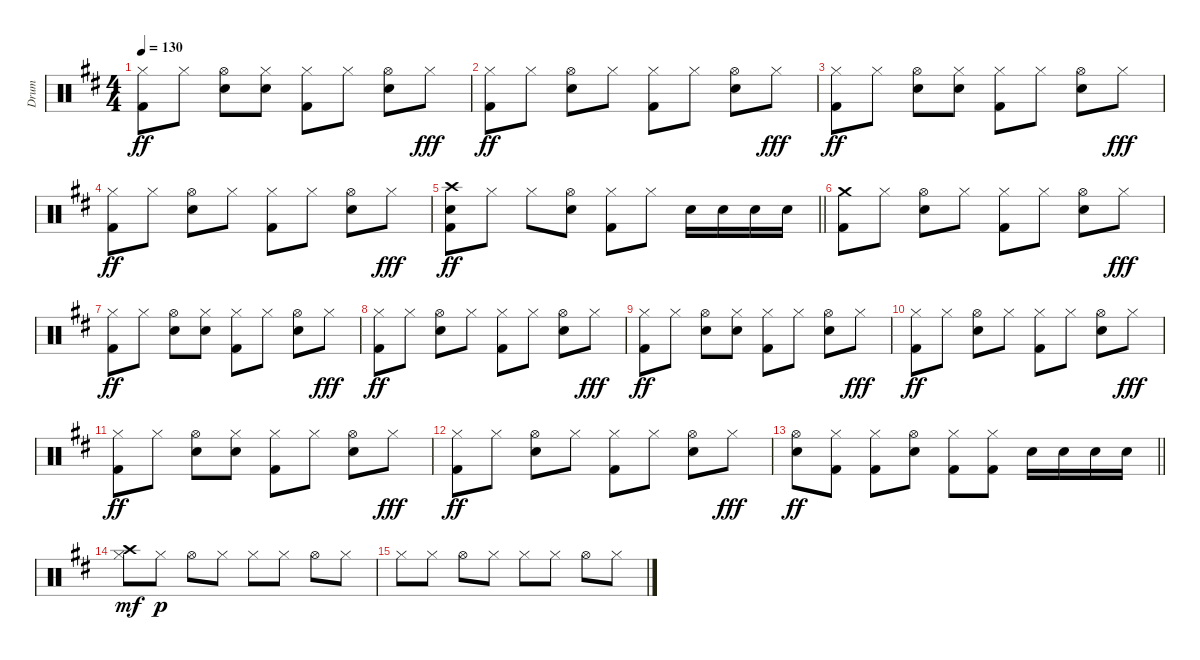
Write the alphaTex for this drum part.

\track ("Drum" "Drum") {instrument percussion}
\staff {score}
\articulation defaults
\ts (4 4)
\tempo 130
\clef neutral
\ks d
("Hi-Hat (closed)" "Kick (hit) 2").8{dy ff} "Hi-Hat (closed)".8 ("Hi-Hat (open)" "Electric Snare (hit)").8 ("Hi-Hat (closed)" "Electric Snare (hit)").8 ("Hi-Hat (closed)" "Kick (hit) 2").8 "Hi-Hat (closed)".8 ("Hi-Hat (open)" "Electric Snare (hit)").8 "Hi-Hat (closed)".8{dy fff} |
("Hi-Hat (closed)" "Kick (hit) 2").8{dy ff} "Hi-Hat (closed)".8 ("Hi-Hat (open)" "Electric Snare (hit)").8 "Hi-Hat (closed)".8 ("Hi-Hat (closed)" "Kick (hit) 2").8 "Hi-Hat (closed)".8 ("Hi-Hat (open)" "Electric Snare (hit)").8 "Hi-Hat (closed)".8{dy fff} |
("Hi-Hat (closed)" "Kick (hit) 2").8{dy ff} "Hi-Hat (closed)".8 ("Hi-Hat (open)" "Electric Snare (hit)").8 ("Hi-Hat (closed)" "Electric Snare (hit)").8 ("Hi-Hat (closed)" "Kick (hit) 2").8 "Hi-Hat (closed)".8 ("Hi-Hat (open)" "Electric Snare (hit)").8 "Hi-Hat (closed)".8{dy fff} |
("Hi-Hat (closed)" "Kick (hit) 2").8{dy ff} "Hi-Hat (closed)".8 ("Hi-Hat (open)" "Electric Snare (hit)").8 "Hi-Hat (closed)".8 ("Hi-Hat (closed)" "Kick (hit) 2").8 "Hi-Hat (closed)".8 ("Hi-Hat (open)" "Electric Snare (hit)").8 "Hi-Hat (closed)".8{dy fff} |
\barLineRight lightlight
("Crash high (hit)" "Electric Snare (hit)" "Kick (hit) 2").8{dy ff} "Hi-Hat (closed)".8 "Hi-Hat (closed)".8 ("Hi-Hat (open)" "Electric Snare (hit)").8 ("Hi-Hat (closed)" "Kick (hit) 2").8 "Hi-Hat (closed)".8 "Electric Snare (hit)".16 "Electric Snare (hit)".16 "Electric Snare (hit)".16 "Electric Snare (hit)".16 |
("Crash medium (hit)" "Kick (hit) 2").8 "Hi-Hat (closed)".8 ("Hi-Hat (open)" "Electric Snare (hit)").8 "Hi-Hat (closed)".8 ("Hi-Hat (closed)" "Kick (hit) 2").8 "Hi-Hat (closed)".8 ("Hi-Hat (open)" "Electric Snare (hit)").8 "Hi-Hat (closed)".8{dy fff} |
("Hi-Hat (closed)" "Kick (hit) 2").8{dy ff} "Hi-Hat (closed)".8 ("Hi-Hat (open)" "Electric Snare (hit)").8 ("Hi-Hat (closed)" "Electric Snare (hit)").8 ("Hi-Hat (closed)" "Kick (hit) 2").8 "Hi-Hat (closed)".8 ("Hi-Hat (open)" "Electric Snare (hit)").8 "Hi-Hat (closed)".8{dy fff} |
("Hi-Hat (closed)" "Kick (hit) 2").8{dy ff} "Hi-Hat (closed)".8 ("Hi-Hat (open)" "Electric Snare (hit)").8 "Hi-Hat (closed)".8 ("Hi-Hat (closed)" "Kick (hit) 2").8 "Hi-Hat (closed)".8 ("Hi-Hat (open)" "Electric Snare (hit)").8 "Hi-Hat (closed)".8{dy fff} |
("Hi-Hat (closed)" "Kick (hit) 2").8{dy ff} "Hi-Hat (closed)".8 ("Hi-Hat (open)" "Electric Snare (hit)").8 ("Hi-Hat (closed)" "Electric Snare (hit)").8 ("Hi-Hat (closed)" "Kick (hit) 2").8 "Hi-Hat (closed)".8 ("Hi-Hat (open)" "Electric Snare (hit)").8 "Hi-Hat (closed)".8{dy fff} |
("Hi-Hat (closed)" "Kick (hit) 2").8{dy ff} "Hi-Hat (closed)".8 ("Hi-Hat (open)" "Electric Snare (hit)").8 "Hi-Hat (closed)".8 ("Hi-Hat (closed)" "Kick (hit) 2").8 "Hi-Hat (closed)".8 ("Hi-Hat (open)" "Electric Snare (hit)").8 "Hi-Hat (closed)".8{dy fff} |
("Hi-Hat (closed)" "Kick (hit) 2").8{dy ff} "Hi-Hat (closed)".8 ("Hi-Hat (open)" "Electric Snare (hit)").8 ("Hi-Hat (closed)" "Electric Snare (hit)").8 ("Hi-Hat (closed)" "Kick (hit) 2").8 "Hi-Hat (closed)".8 ("Hi-Hat (open)" "Electric Snare (hit)").8 "Hi-Hat (closed)".8{dy fff} |
("Hi-Hat (closed)" "Kick (hit) 2").8{dy ff} "Hi-Hat (closed)".8 ("Hi-Hat (open)" "Electric Snare (hit)").8 "Hi-Hat (closed)".8 ("Hi-Hat (closed)" "Kick (hit) 2").8 "Hi-Hat (closed)".8 ("Hi-Hat (open)" "Electric Snare (hit)").8 "Hi-Hat (closed)".8{dy fff} |
\barLineRight lightlight
("Hi-Hat (open)" "Electric Snare (hit)").8{dy ff} ("Hi-Hat (closed)" "Kick (hit) 2").8 ("Hi-Hat (closed)" "Kick (hit) 2").8 ("Hi-Hat (open)" "Electric Snare (hit)").8 ("Hi-Hat (closed)" "Kick (hit) 2").8 ("Hi-Hat (closed)" "Kick (hit) 2").8 "Electric Snare (hit)".16 "Electric Snare (hit)".16 "Electric Snare (hit)".16 "Electric Snare (hit)".16 |
("Hi-Hat (closed)" "Crash high (hit)").8{dy mf} "Hi-Hat (closed)".8{dy p} "Hi-Hat (open)".8 "Hi-Hat (closed)".8 "Hi-Hat (closed)".8 "Hi-Hat (closed)".8 "Hi-Hat (open)".8 "Hi-Hat (closed)".8 |
"Hi-Hat (closed)".8 "Hi-Hat (closed)".8 "Hi-Hat (open)".8 "Hi-Hat (closed)".8 "Hi-Hat (closed)".8 "Hi-Hat (closed)".8 "Hi-Hat (open)".8 "Hi-Hat (closed)".8
